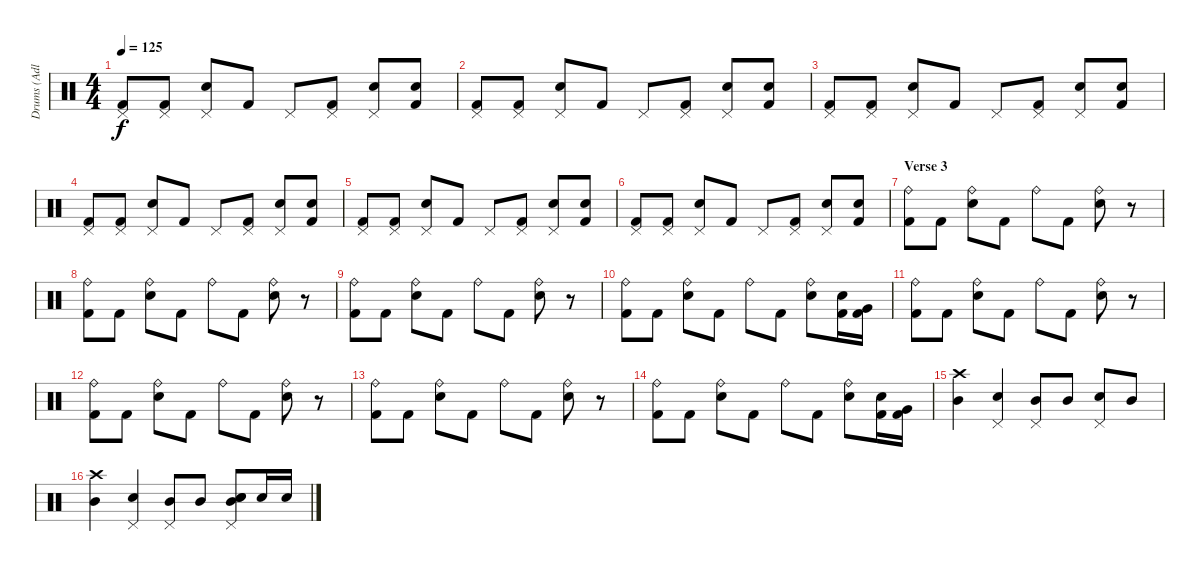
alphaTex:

\track ("Drums (Adler)" "Drums (Adl") {instrument percussion}
\staff {score}
\articulation defaults
\ts (4 4)
\tempo 125
\clef neutral
\ks c
("Kick (hit) 2" "Pedal Hi-Hat (hit)").8{dy f} ("Kick (hit) 2" "Pedal Hi-Hat (hit)").8 ("Electric Snare (hit)" "Pedal Hi-Hat (hit)").8 "Kick (hit) 2".8 "Pedal Hi-Hat (hit)".8 ("Kick (hit) 2" "Pedal Hi-Hat (hit)").8 ("Electric Snare (hit)" "Pedal Hi-Hat (hit)").8 ("Kick (hit) 2" "Snare (hit) 2").8 |
("Kick (hit) 2" "Pedal Hi-Hat (hit)").8 ("Kick (hit) 2" "Pedal Hi-Hat (hit)").8 ("Electric Snare (hit)" "Pedal Hi-Hat (hit)").8 "Kick (hit) 2".8 "Pedal Hi-Hat (hit)".8 ("Kick (hit) 2" "Pedal Hi-Hat (hit)").8 ("Electric Snare (hit)" "Pedal Hi-Hat (hit)").8 ("Kick (hit) 2" "Snare (hit) 2").8 |
("Kick (hit) 2" "Pedal Hi-Hat (hit)").8 ("Kick (hit) 2" "Pedal Hi-Hat (hit)").8 ("Electric Snare (hit)" "Pedal Hi-Hat (hit)").8 "Kick (hit) 2".8 "Pedal Hi-Hat (hit)".8 ("Kick (hit) 2" "Pedal Hi-Hat (hit)").8 ("Electric Snare (hit)" "Pedal Hi-Hat (hit)").8 ("Kick (hit) 2" "Snare (hit) 2").8 |
("Kick (hit) 2" "Pedal Hi-Hat (hit)").8 ("Kick (hit) 2" "Pedal Hi-Hat (hit)").8 ("Electric Snare (hit)" "Pedal Hi-Hat (hit)").8 "Kick (hit) 2".8 "Pedal Hi-Hat (hit)".8 ("Kick (hit) 2" "Pedal Hi-Hat (hit)").8 ("Electric Snare (hit)" "Pedal Hi-Hat (hit)").8 ("Kick (hit) 2" "Snare (hit) 2").8 |
("Kick (hit) 2" "Pedal Hi-Hat (hit)").8 ("Kick (hit) 2" "Pedal Hi-Hat (hit)").8 ("Electric Snare (hit)" "Pedal Hi-Hat (hit)").8 "Kick (hit) 2".8 "Pedal Hi-Hat (hit)".8 ("Kick (hit) 2" "Pedal Hi-Hat (hit)").8 ("Electric Snare (hit)" "Pedal Hi-Hat (hit)").8 ("Kick (hit) 2" "Snare (hit) 2").8 |
("Kick (hit) 2" "Pedal Hi-Hat (hit)").8 ("Kick (hit) 2" "Pedal Hi-Hat (hit)").8 ("Electric Snare (hit)" "Pedal Hi-Hat (hit)").8 "Kick (hit) 2".8 "Pedal Hi-Hat (hit)".8 ("Kick (hit) 2" "Pedal Hi-Hat (hit)").8 ("Electric Snare (hit)" "Pedal Hi-Hat (hit)").8 ("Kick (hit) 2" "Snare (hit) 2").8 |
\section ("" "Verse 3")
("Kick (hit) 2" "Ride (bell)").8 "Kick (hit) 2".8 ("Electric Snare (hit)" "Ride (bell)").8 "Kick (hit) 2".8 "Ride (bell)".8 "Kick (hit) 2".8 ("Electric Snare (hit)" "Ride (bell)").8 r.8 |
("Kick (hit) 2" "Ride (bell)").8 "Kick (hit) 2".8 ("Electric Snare (hit)" "Ride (bell)").8 "Kick (hit) 2".8 "Ride (bell)".8 "Kick (hit) 2".8 ("Electric Snare (hit)" "Ride (bell)").8 r.8 |
("Kick (hit) 2" "Ride (bell)").8 "Kick (hit) 2".8 ("Electric Snare (hit)" "Ride (bell)").8 "Kick (hit) 2".8 "Ride (bell)".8 "Kick (hit) 2".8 ("Electric Snare (hit)" "Ride (bell)").8 r.8 |
("Kick (hit) 2" "Ride (bell)").8 "Kick (hit) 2".8 ("Electric Snare (hit)" "Ride (bell)").8 "Kick (hit) 2".8 "Ride (bell)".8 "Kick (hit) 2".8 ("Electric Snare (hit)" "Ride (bell)").8 ("Kick (hit) 2" "Electric Snare (hit)").16 ("Kick (hit) 2" "Very Low Tom (hit)").16 |
("Kick (hit) 2" "Ride (bell)").8 "Kick (hit) 2".8 ("Electric Snare (hit)" "Ride (bell)").8 "Kick (hit) 2".8 "Ride (bell)".8 "Kick (hit) 2".8 ("Electric Snare (hit)" "Ride (bell)").8 r.8 |
("Kick (hit) 2" "Ride (bell)").8 "Kick (hit) 2".8 ("Electric Snare (hit)" "Ride (bell)").8 "Kick (hit) 2".8 "Ride (bell)".8 "Kick (hit) 2".8 ("Electric Snare (hit)" "Ride (bell)").8 r.8 |
("Kick (hit) 2" "Ride (bell)").8 "Kick (hit) 2".8 ("Electric Snare (hit)" "Ride (bell)").8 "Kick (hit) 2".8 "Ride (bell)".8 "Kick (hit) 2".8 ("Electric Snare (hit)" "Ride (bell)").8 r.8 |
("Kick (hit) 2" "Ride (bell)").8 "Kick (hit) 2".8 ("Electric Snare (hit)" "Ride (bell)").8 "Kick (hit) 2".8 "Ride (bell)".8 "Kick (hit) 2".8 ("Electric Snare (hit)" "Ride (bell)").8 ("Kick (hit) 2" "Electric Snare (hit)").16 ("Kick (hit) 2" "Very Low Tom (hit)").16 |
("Crash high (hit)" "Mid Tom (hit)").4 ("Pedal Hi-Hat (hit)" "Snare (hit) 2").4 ("Pedal Hi-Hat (hit)" "Mid Tom (hit)").8 "Mid Tom (hit)".8 ("Pedal Hi-Hat (hit)" "Snare (hit) 2").8 "Mid Tom (hit)".8 |
("Crash high (hit)" "Mid Tom (hit)").4 ("Pedal Hi-Hat (hit)" "Snare (hit) 2").4 ("Pedal Hi-Hat (hit)" "Mid Tom (hit)").8 "Mid Tom (hit)".8 ("Pedal Hi-Hat (hit)" "Snare (hit) 2" "Electric Snare (hit)" "Mid Tom (hit)").8 "Electric Snare (hit)".16 "Electric Snare (hit)".16
